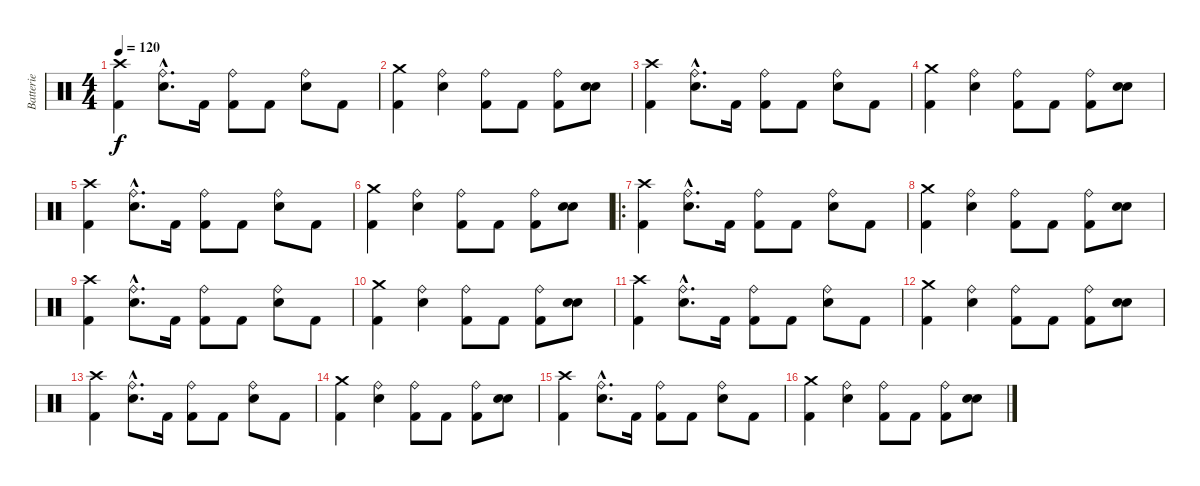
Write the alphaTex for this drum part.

\track ("Batterie" "Batterie") {instrument percussion}
\staff {score}
\articulation defaults
\ts (4 4)
\tempo 120
\clef neutral
\ks c
("Crash high (hit)" "Kick (hit) 2").4{dy f} ("Ride (bell)"{hac} "Snare (hit) 2"{hac}).8{d} "Kick (hit) 2".16 ("Ride (bell)" "Kick (hit) 2").8 "Kick (hit) 2".8 ("Ride (bell)" "Snare (hit) 2").8 "Kick (hit) 2".8 |
("Crash medium (hit)" "Kick (hit) 2").4 ("Ride (bell)" "Snare (hit) 2").4 ("Ride (bell)" "Kick (hit) 2").8 "Kick (hit) 2".8 ("Ride (bell)" "Kick (hit) 2").8 ("Snare (hit) 2" "Snare (hit) 2").8{bd 120} |
("Crash high (hit)" "Kick (hit) 2").4 ("Ride (bell)"{hac} "Snare (hit) 2"{hac}).8{d} "Kick (hit) 2".16 ("Ride (bell)" "Kick (hit) 2").8 "Kick (hit) 2".8 ("Ride (bell)" "Snare (hit) 2").8 "Kick (hit) 2".8 |
("Crash medium (hit)" "Kick (hit) 2").4 ("Ride (bell)" "Snare (hit) 2").4 ("Ride (bell)" "Kick (hit) 2").8 "Kick (hit) 2".8 ("Ride (bell)" "Kick (hit) 2").8 ("Snare (hit) 2" "Snare (hit) 2").8{bd 120} |
("Crash high (hit)" "Kick (hit) 2").4 ("Ride (bell)"{hac} "Snare (hit) 2"{hac}).8{d} "Kick (hit) 2".16 ("Ride (bell)" "Kick (hit) 2").8 "Kick (hit) 2".8 ("Ride (bell)" "Snare (hit) 2").8 "Kick (hit) 2".8 |
("Crash medium (hit)" "Kick (hit) 2").4 ("Ride (bell)" "Snare (hit) 2").4 ("Ride (bell)" "Kick (hit) 2").8 "Kick (hit) 2".8 ("Ride (bell)" "Kick (hit) 2").8 ("Snare (hit) 2" "Snare (hit) 2").8{bd 120} |
\ro
("Crash high (hit)" "Kick (hit) 2").4 ("Ride (bell)"{hac} "Snare (hit) 2"{hac}).8{d} "Kick (hit) 2".16 ("Ride (bell)" "Kick (hit) 2").8 "Kick (hit) 2".8 ("Ride (bell)" "Snare (hit) 2").8 "Kick (hit) 2".8 |
("Crash medium (hit)" "Kick (hit) 2").4 ("Ride (bell)" "Snare (hit) 2").4 ("Ride (bell)" "Kick (hit) 2").8 "Kick (hit) 2".8 ("Ride (bell)" "Kick (hit) 2").8 ("Snare (hit) 2" "Snare (hit) 2").8{bd 120} |
("Crash high (hit)" "Kick (hit) 2").4 ("Ride (bell)"{hac} "Snare (hit) 2"{hac}).8{d} "Kick (hit) 2".16 ("Ride (bell)" "Kick (hit) 2").8 "Kick (hit) 2".8 ("Ride (bell)" "Snare (hit) 2").8 "Kick (hit) 2".8 |
("Crash medium (hit)" "Kick (hit) 2").4 ("Ride (bell)" "Snare (hit) 2").4 ("Ride (bell)" "Kick (hit) 2").8 "Kick (hit) 2".8 ("Ride (bell)" "Kick (hit) 2").8 ("Snare (hit) 2" "Snare (hit) 2").8{bd 120} |
("Crash high (hit)" "Kick (hit) 2").4 ("Ride (bell)"{hac} "Snare (hit) 2"{hac}).8{d} "Kick (hit) 2".16 ("Ride (bell)" "Kick (hit) 2").8 "Kick (hit) 2".8 ("Ride (bell)" "Snare (hit) 2").8 "Kick (hit) 2".8 |
("Crash medium (hit)" "Kick (hit) 2").4 ("Ride (bell)" "Snare (hit) 2").4 ("Ride (bell)" "Kick (hit) 2").8 "Kick (hit) 2".8 ("Ride (bell)" "Kick (hit) 2").8 ("Snare (hit) 2" "Snare (hit) 2").8{bd 120} |
("Crash high (hit)" "Kick (hit) 2").4 ("Ride (bell)"{hac} "Snare (hit) 2"{hac}).8{d} "Kick (hit) 2".16 ("Ride (bell)" "Kick (hit) 2").8 "Kick (hit) 2".8 ("Ride (bell)" "Snare (hit) 2").8 "Kick (hit) 2".8 |
("Crash medium (hit)" "Kick (hit) 2").4 ("Ride (bell)" "Snare (hit) 2").4 ("Ride (bell)" "Kick (hit) 2").8 "Kick (hit) 2".8 ("Ride (bell)" "Kick (hit) 2").8 ("Snare (hit) 2" "Snare (hit) 2").8{bd 120} |
("Crash high (hit)" "Kick (hit) 2").4 ("Ride (bell)"{hac} "Snare (hit) 2"{hac}).8{d} "Kick (hit) 2".16 ("Ride (bell)" "Kick (hit) 2").8 "Kick (hit) 2".8 ("Ride (bell)" "Snare (hit) 2").8 "Kick (hit) 2".8 |
("Crash medium (hit)" "Kick (hit) 2").4 ("Ride (bell)" "Snare (hit) 2").4 ("Ride (bell)" "Kick (hit) 2").8 "Kick (hit) 2".8 ("Ride (bell)" "Kick (hit) 2").8 ("Snare (hit) 2" "Snare (hit) 2").8{bd 120}
